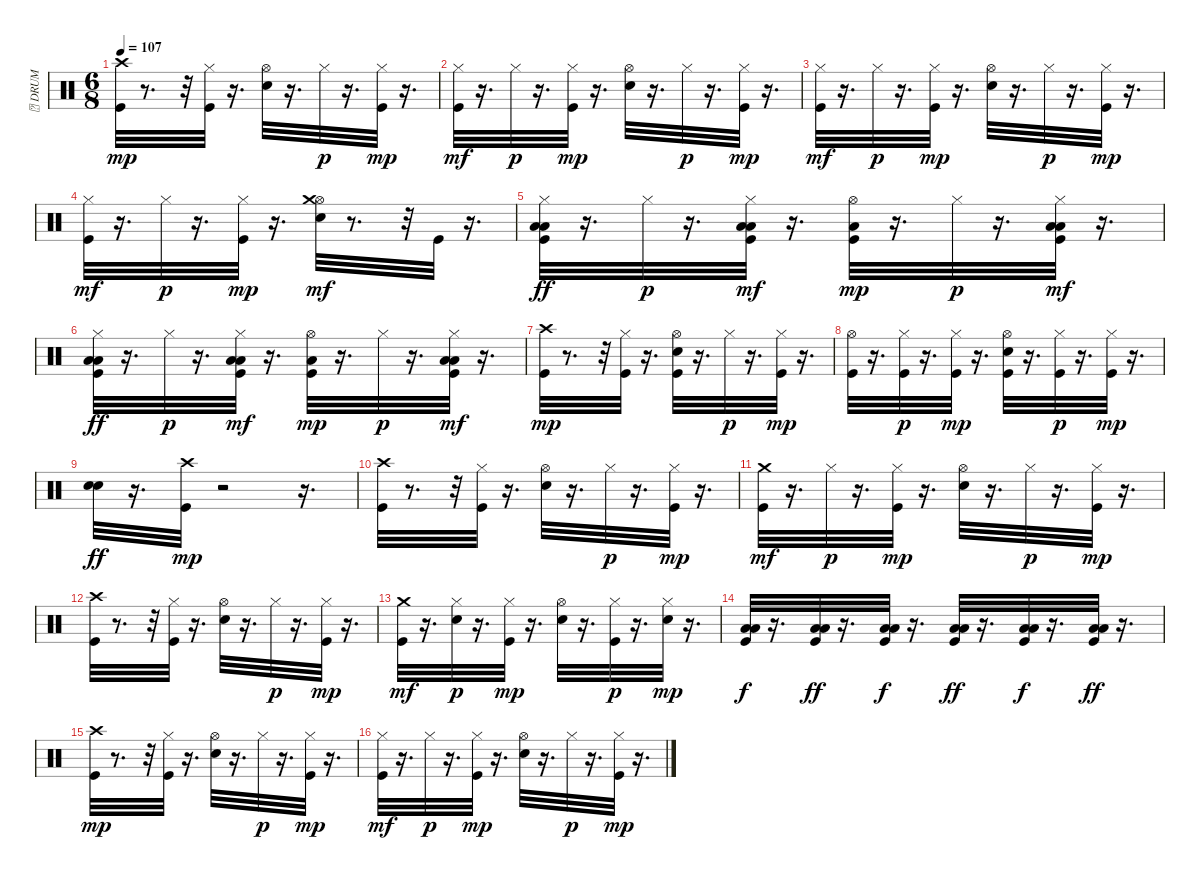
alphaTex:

\track ("\t DRUM" "\t DRUM") {instrument percussion}
\staff {score}
\articulation defaults
\ts (6 8)
\tempo 107
\clef neutral
\ks c
("Kick (hit)" "Crash high (hit)").32{dy mp} r.8{d} r.32 ("Kick (hit)" "Hi-Hat (closed)").32 r.16{d} ("Electric Snare (hit)" "Hi-Hat (open)").32 r.16{d} "Hi-Hat (closed)".32{dy p} r.16{d} ("Kick (hit)" "Hi-Hat (closed)").32{dy mp} r.16{d} |
("Kick (hit)" "Hi-Hat (closed)").32{dy mf} r.16{d} "Hi-Hat (closed)".32{dy p} r.16{d} ("Kick (hit)" "Hi-Hat (closed)").32{dy mp} r.16{d} ("Electric Snare (hit)" "Hi-Hat (open)").32 r.16{d} "Hi-Hat (closed)".32{dy p} r.16{d} ("Kick (hit)" "Hi-Hat (closed)").32{dy mp} r.16{d} |
("Kick (hit)" "Hi-Hat (closed)").32{dy mf} r.16{d} "Hi-Hat (closed)".32{dy p} r.16{d} ("Kick (hit)" "Hi-Hat (closed)").32{dy mp} r.16{d} ("Electric Snare (hit)" "Hi-Hat (open)").32 r.16{d} "Hi-Hat (closed)".32{dy p} r.16{d} ("Kick (hit)" "Hi-Hat (closed)").32{dy mp} r.16{d} |
("Kick (hit)" "Hi-Hat (closed)").32{dy mf} r.16{d} "Hi-Hat (closed)".32{dy p} r.16{d} ("Kick (hit)" "Hi-Hat (closed)").32{dy mp} r.16{d} ("Electric Snare (hit)" "Hi-Hat (open)" "Crash medium (hit)").32{dy mf} r.8{d} r.32 "Kick (hit)".32 r.16{d} |
("Kick (hit)" "Low Floor Tom (hit)" "Hi-Hat (closed)" "Low Tom (hit)").32{dy ff} r.16{d} "Hi-Hat (closed)".32{dy p} r.16{d} ("Kick (hit)" "Low Floor Tom (hit)" "Hi-Hat (closed)" "Low Tom (hit)").32{dy mf} r.16{d} ("Kick (hit)" "Low Floor Tom (hit)" "Hi-Hat (open)").32{dy mp} r.16{d} "Hi-Hat (closed)".32{dy p} r.16{d} ("Kick (hit)" "Low Floor Tom (hit)" "Hi-Hat (closed)" "Low Tom (hit)").32{dy mf} r.16{d} |
("Kick (hit)" "Low Floor Tom (hit)" "Hi-Hat (closed)" "Low Tom (hit)").32{dy ff} r.16{d} "Hi-Hat (closed)".32{dy p} r.16{d} ("Kick (hit)" "Low Floor Tom (hit)" "Hi-Hat (closed)" "Low Tom (hit)").32{dy mf} r.16{d} ("Kick (hit)" "Low Floor Tom (hit)" "Hi-Hat (open)").32{dy mp} r.16{d} "Hi-Hat (closed)".32{dy p} r.16{d} ("Kick (hit)" "Low Floor Tom (hit)" "Hi-Hat (closed)" "Low Tom (hit)").32{dy mf} r.16{d} |
("Kick (hit)" "Crash high (hit)").32{dy mp} r.8{d} r.32 ("Kick (hit)" "Hi-Hat (closed)").32 r.16{d} ("Kick (hit)" "Electric Snare (hit)" "Hi-Hat (open)").32 r.16{d} "Hi-Hat (closed)".32{dy p} r.16{d} ("Kick (hit)" "Hi-Hat (closed)").32{dy mp} r.16{d} |
("Kick (hit)" "Hi-Hat (open)").32 r.16{d} ("Kick (hit)" "Hi-Hat (closed)").32{dy p} r.16{d} ("Kick (hit)" "Hi-Hat (closed)").32{dy mp} r.16{d} ("Kick (hit)" "Electric Snare (hit)" "Hi-Hat (open)").32 r.16{d} ("Kick (hit)" "Hi-Hat (closed)").32{dy p} r.16{d} ("Kick (hit)" "Hi-Hat (closed)").32{dy mp} r.16{d} |
("Electric Snare (hit)" "Electric Snare (hit)").32{dy ff} r.16{d} ("Kick (hit)" "Crash high (hit)").32{dy mp} r.2 r.16{d} |
("Kick (hit)" "Crash high (hit)").32 r.8{d} r.32 ("Kick (hit)" "Hi-Hat (closed)").32 r.16{d} ("Electric Snare (hit)" "Hi-Hat (open)").32 r.16{d} "Hi-Hat (closed)".32{dy p} r.16{d} ("Kick (hit)" "Hi-Hat (closed)").32{dy mp} r.16{d} |
("Kick (hit)" "Crash medium (hit)").32{dy mf} r.16{d} "Hi-Hat (closed)".32{dy p} r.16{d} ("Kick (hit)" "Hi-Hat (closed)").32{dy mp} r.16{d} ("Electric Snare (hit)" "Hi-Hat (open)").32 r.16{d} "Hi-Hat (closed)".32{dy p} r.16{d} ("Kick (hit)" "Hi-Hat (closed)").32{dy mp} r.16{d} |
("Kick (hit)" "Crash high (hit)").32 r.8{d} r.32 ("Kick (hit)" "Hi-Hat (closed)").32 r.16{d} ("Electric Snare (hit)" "Hi-Hat (open)").32 r.16{d} "Hi-Hat (closed)".32{dy p} r.16{d} ("Kick (hit)" "Hi-Hat (closed)").32{dy mp} r.16{d} |
("Kick (hit)" "Crash medium (hit)").32{dy mf} r.16{d} ("Electric Snare (hit)" "Hi-Hat (closed)").32{dy p} r.16{d} ("Kick (hit)" "Hi-Hat (closed)").32{dy mp} r.16{d} ("Electric Snare (hit)" "Hi-Hat (open)").32 r.16{d} ("Kick (hit)" "Hi-Hat (closed)").32{dy p} r.16{d} ("Electric Snare (hit)" "Hi-Hat (closed)").32{dy mp} r.16{d} |
("Kick (hit)" "Low Floor Tom (hit)" "Low Tom (hit)").32{dy f} r.16{d} ("Kick (hit)" "Low Floor Tom (hit)" "Low Tom (hit)").32{dy ff} r.16{d} ("Kick (hit)" "Low Floor Tom (hit)" "Low Tom (hit)").32{dy f} r.16{d} ("Kick (hit)" "Low Floor Tom (hit)" "Low Tom (hit)").32{dy ff} r.16{d} ("Kick (hit)" "Low Floor Tom (hit)" "Low Tom (hit)").32{dy f} r.16{d} ("Kick (hit)" "Low Floor Tom (hit)" "Low Tom (hit)").32{dy ff} r.16{d} |
("Kick (hit)" "Crash high (hit)").32{dy mp} r.8{d} r.32 ("Kick (hit)" "Hi-Hat (closed)").32 r.16{d} ("Electric Snare (hit)" "Hi-Hat (open)").32 r.16{d} "Hi-Hat (closed)".32{dy p} r.16{d} ("Kick (hit)" "Hi-Hat (closed)").32{dy mp} r.16{d} |
("Kick (hit)" "Hi-Hat (closed)").32{dy mf} r.16{d} "Hi-Hat (closed)".32{dy p} r.16{d} ("Kick (hit)" "Hi-Hat (closed)").32{dy mp} r.16{d} ("Electric Snare (hit)" "Hi-Hat (open)").32 r.16{d} "Hi-Hat (closed)".32{dy p} r.16{d} ("Kick (hit)" "Hi-Hat (closed)").32{dy mp} r.16{d}
